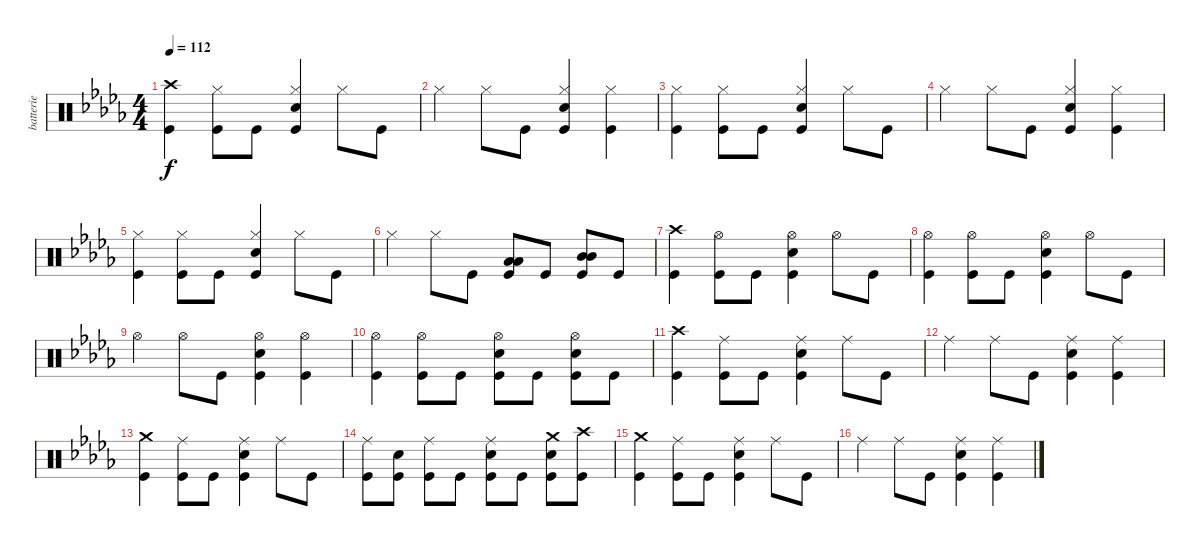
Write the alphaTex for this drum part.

\track ("batterie" "batterie") {instrument percussion}
\staff {score}
\articulation defaults
\ts (4 4)
\tempo 112
\clef neutral
\ks bbminor
("Kick (hit)" "Crash high (hit)").4{dy f} ("Kick (hit)" "Hi-Hat (closed)").8 "Kick (hit)".8 ("Kick (hit)" "Snare (hit) 2" "Hi-Hat (closed)").4 "Hi-Hat (closed)".8 "Kick (hit)".8 |
"Hi-Hat (closed)".4 "Hi-Hat (closed)".8 "Kick (hit)".8 ("Kick (hit)" "Snare (hit) 2" "Hi-Hat (closed)").4 ("Kick (hit)" "Hi-Hat (closed)").4 |
("Kick (hit)" "Hi-Hat (closed)").4 ("Kick (hit)" "Hi-Hat (closed)").8 "Kick (hit)".8 ("Kick (hit)" "Snare (hit) 2" "Hi-Hat (closed)").4 "Hi-Hat (closed)".8 "Kick (hit)".8 |
"Hi-Hat (closed)".4 "Hi-Hat (closed)".8 "Kick (hit)".8 ("Kick (hit)" "Snare (hit) 2" "Hi-Hat (closed)").4 ("Kick (hit)" "Hi-Hat (closed)").4 |
("Kick (hit)" "Hi-Hat (closed)").4 ("Kick (hit)" "Hi-Hat (closed)").8 "Kick (hit)".8 ("Kick (hit)" "Snare (hit) 2" "Hi-Hat (closed)").4 "Hi-Hat (closed)".8 "Kick (hit)".8 |
"Hi-Hat (closed)".4 "Hi-Hat (closed)".8 "Kick (hit)".8 ("Kick (hit)" "Low Floor Tom (hit)" "Low Floor Tom (hit)").8 "Kick (hit)".8 ("Kick (hit)" "Mid Tom (hit)" "Mid Tom (hit)").8 "Kick (hit)".8 |
("Kick (hit)" "Crash high (hit)").4 ("Kick (hit)" "Hi-Hat (open)").8 "Kick (hit)".8 ("Kick (hit)" "Snare (hit) 2" "Hi-Hat (open)").4 "Hi-Hat (open)".8 "Kick (hit)".8 |
("Kick (hit)" "Hi-Hat (open)").4 ("Kick (hit)" "Hi-Hat (open)").8 "Kick (hit)".8 ("Kick (hit)" "Snare (hit) 2" "Hi-Hat (open)").4 "Hi-Hat (open)".8 "Kick (hit)".8 |
"Hi-Hat (open)".4 "Hi-Hat (open)".8 "Kick (hit)".8 ("Kick (hit)" "Snare (hit) 2" "Hi-Hat (open)").4 ("Kick (hit)" "Hi-Hat (open)").4 |
("Kick (hit)" "Hi-Hat (open)").4 ("Kick (hit)" "Hi-Hat (open)").8 "Kick (hit)".8 ("Kick (hit)" "Snare (hit) 2" "Hi-Hat (open)").8 "Kick (hit)".8 ("Kick (hit)" "Snare (hit) 2" "Hi-Hat (open)").8 "Kick (hit)".8 |
("Kick (hit)" "Crash high (hit)").4 ("Kick (hit)" "Ride (middle)").8 "Kick (hit)".8 ("Kick (hit)" "Snare (hit) 2" "Ride (middle)").4 "Ride (middle)".8 "Kick (hit)".8 |
"Ride (middle)".4 "Ride (middle)".8 "Kick (hit)".8 ("Kick (hit)" "Snare (hit) 2" "Ride (middle)").4 ("Kick (hit)" "Ride (middle)").4 |
("Kick (hit)" "Crash medium (hit)").4 ("Kick (hit)" "Ride (middle)").8 "Kick (hit)".8 ("Kick (hit)" "Snare (hit) 2" "Ride (middle)").4 "Ride (middle)".8 "Kick (hit)".8 |
("Kick (hit)" "Ride (middle)").8 ("Kick (hit)" "Snare (hit) 2").8 ("Kick (hit)" "Ride (middle)").8 "Kick (hit)".8 ("Kick (hit)" "Snare (hit) 2" "Ride (middle)").8 "Kick (hit)".8 ("Kick (hit)" "Snare (hit) 2" "Crash medium (hit)").8 ("Kick (hit)" "Crash high (hit)").8 |
("Kick (hit)" "Crash medium (hit)").4 ("Kick (hit)" "Ride (middle)").8 "Kick (hit)".8 ("Kick (hit)" "Snare (hit) 2" "Ride (middle)").4 "Ride (middle)".8 "Kick (hit)".8 |
"Ride (middle)".4 "Ride (middle)".8 "Kick (hit)".8 ("Kick (hit)" "Snare (hit) 2" "Ride (middle)").4 ("Kick (hit)" "Ride (middle)").4
